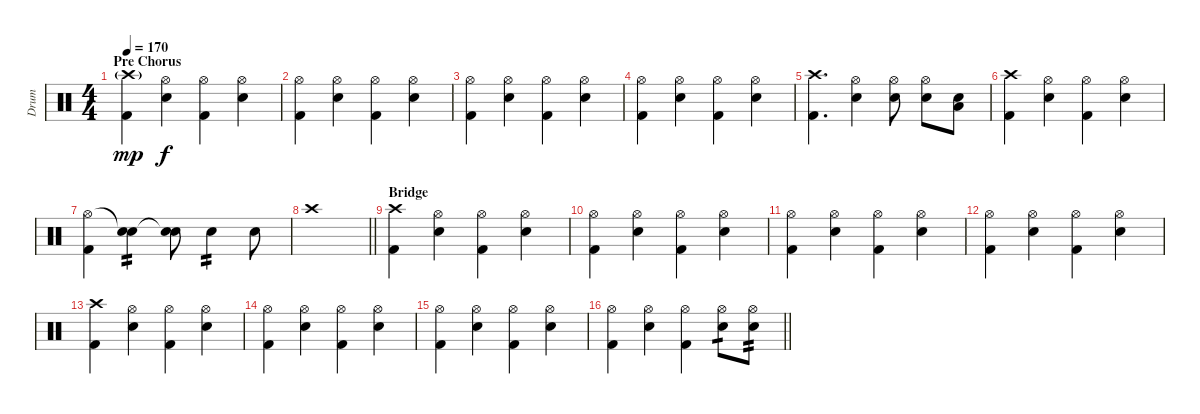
\track ("Drum" "Drum") {instrument percussion}
\staff {score}
\articulation defaults
\ts (4 4)
\section ("" "Pre Chorus")
\tempo 170
\clef neutral
\ks c
("Crash high (hit)"{g} "Kick (hit) 2").4{dy mp} ("Hi-Hat (open)" "Electric Snare (hit)").4{dy f} ("Hi-Hat (open)" "Kick (hit) 2").4 ("Hi-Hat (open)" "Electric Snare (hit)").4 |
("Hi-Hat (open)" "Kick (hit) 2").4 ("Hi-Hat (open)" "Electric Snare (hit)").4 ("Hi-Hat (open)" "Kick (hit) 2").4 ("Hi-Hat (open)" "Electric Snare (hit)").4 |
("Hi-Hat (open)" "Kick (hit) 2").4 ("Hi-Hat (open)" "Electric Snare (hit)").4 ("Hi-Hat (open)" "Kick (hit) 2").4 ("Hi-Hat (open)" "Electric Snare (hit)").4 |
("Hi-Hat (open)" "Kick (hit) 2").4 ("Hi-Hat (open)" "Electric Snare (hit)").4 ("Hi-Hat (open)" "Kick (hit) 2").4 ("Hi-Hat (open)" "Electric Snare (hit)").4 |
("Crash high (hit)" "Kick (hit) 2").4{d} ("Hi-Hat (open)" "Electric Snare (hit)").4 ("Hi-Hat (open)" "Electric Snare (hit)").8 ("Hi-Hat (open)" "Electric Snare (hit)").8 ("Low Tom (hit)" "Electric Snare (hit)").8 |
("Crash high (hit)" "Kick (hit) 2").4 ("Hi-Hat (open)" "Electric Snare (hit)").4 ("Hi-Hat (open)" "Kick (hit) 2").4 ("Hi-Hat (open)" "Electric Snare (hit)").4 |
("Hi-Hat (open)" "Kick (hit) 2").4 ("Snare (hit)"{t} "Electric Snare (hit)").4{tp 2} ("Snare (hit)"{t} "Electric Snare (hit)").8 "Electric Snare (hit)".4{tp 2} "Electric Snare (hit)".8 |
\barLineRight lightlight "Crash high (hit)".1
|
\section ("" "Bridge")
("Crash high (hit)" "Kick (hit) 2").4 ("Hi-Hat (open)" "Electric Snare (hit)").4 ("Hi-Hat (open)" "Kick (hit) 2").4 ("Hi-Hat (open)" "Electric Snare (hit)").4 |
("Hi-Hat (open)" "Kick (hit) 2").4 ("Hi-Hat (open)" "Electric Snare (hit)").4 ("Hi-Hat (open)" "Kick (hit) 2").4 ("Hi-Hat (open)" "Electric Snare (hit)").4 |
("Hi-Hat (open)" "Kick (hit) 2").4 ("Hi-Hat (open)" "Electric Snare (hit)").4 ("Hi-Hat (open)" "Kick (hit) 2").4 ("Hi-Hat (open)" "Electric Snare (hit)").4 |
("Hi-Hat (open)" "Kick (hit) 2").4 ("Hi-Hat (open)" "Electric Snare (hit)").4 ("Hi-Hat (open)" "Kick (hit) 2").4 ("Hi-Hat (open)" "Electric Snare (hit)").4 |
("Crash high (hit)" "Kick (hit) 2").4 ("Hi-Hat (open)" "Electric Snare (hit)").4 ("Hi-Hat (open)" "Kick (hit) 2").4 ("Hi-Hat (open)" "Electric Snare (hit)").4 |
("Hi-Hat (open)" "Kick (hit) 2").4 ("Hi-Hat (open)" "Electric Snare (hit)").4 ("Hi-Hat (open)" "Kick (hit) 2").4 ("Hi-Hat (open)" "Electric Snare (hit)").4 |
("Hi-Hat (open)" "Kick (hit) 2").4 ("Hi-Hat (open)" "Electric Snare (hit)").4 ("Hi-Hat (open)" "Kick (hit) 2").4 ("Hi-Hat (open)" "Electric Snare (hit)").4 |
\barLineRight lightlight
("Hi-Hat (open)" "Kick (hit) 2").4 ("Hi-Hat (open)" "Electric Snare (hit)").4 ("Hi-Hat (open)" "Kick (hit) 2").4 ("Hi-Hat (open)" "Electric Snare (hit)").8{tp 1} ("Hi-Hat (open)" "Electric Snare (hit)").8{tp 2}
